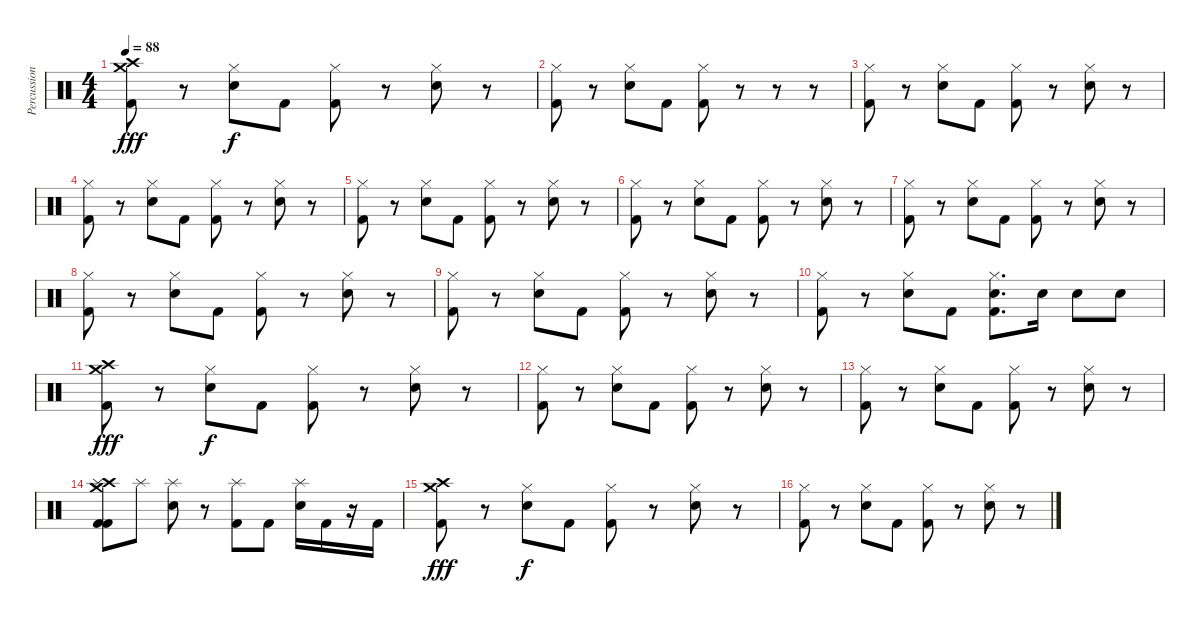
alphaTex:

\track ("Percussion" "Percussion") {instrument percussion}
\staff {score}
\articulation defaults
\ts (4 4)
\tempo 88
\clef neutral
\ks c
("Kick (hit) 2" "Crash medium (hit)" "Crash high (hit)").8{dy fff} r.8 ("Snare (hit) 2" "Hi-Hat (closed)").8{dy f} "Kick (hit) 2".8 ("Kick (hit) 2" "Hi-Hat (closed)").8 r.8 ("Snare (hit) 2" "Hi-Hat (closed)").8 r.8 |
("Kick (hit) 2" "Hi-Hat (closed)").8 r.8 ("Snare (hit) 2" "Hi-Hat (closed)").8 "Kick (hit) 2".8 ("Kick (hit) 2" "Hi-Hat (closed)").8 r.8 r.8 r.8 |
("Kick (hit) 2" "Hi-Hat (closed)").8 r.8 ("Snare (hit) 2" "Hi-Hat (closed)").8 "Kick (hit) 2".8 ("Kick (hit) 2" "Hi-Hat (closed)").8 r.8 ("Snare (hit) 2" "Hi-Hat (closed)").8 r.8 |
("Kick (hit) 2" "Hi-Hat (closed)").8 r.8 ("Snare (hit) 2" "Hi-Hat (closed)").8 "Kick (hit) 2".8 ("Kick (hit) 2" "Hi-Hat (closed)").8 r.8 ("Snare (hit) 2" "Hi-Hat (closed)").8 r.8 |
("Kick (hit) 2" "Hi-Hat (closed)").8 r.8 ("Snare (hit) 2" "Hi-Hat (closed)").8 "Kick (hit) 2".8 ("Kick (hit) 2" "Hi-Hat (closed)").8 r.8 ("Snare (hit) 2" "Hi-Hat (closed)").8 r.8 |
("Kick (hit) 2" "Hi-Hat (closed)").8 r.8 ("Snare (hit) 2" "Hi-Hat (closed)").8 "Kick (hit) 2".8 ("Kick (hit) 2" "Hi-Hat (closed)").8 r.8 ("Snare (hit) 2" "Hi-Hat (closed)").8 r.8 |
("Kick (hit) 2" "Hi-Hat (closed)").8 r.8 ("Snare (hit) 2" "Hi-Hat (closed)").8 "Kick (hit) 2".8 ("Kick (hit) 2" "Hi-Hat (closed)").8 r.8 ("Snare (hit) 2" "Hi-Hat (closed)").8 r.8 |
("Kick (hit) 2" "Hi-Hat (closed)").8 r.8 ("Snare (hit) 2" "Hi-Hat (closed)").8 "Kick (hit) 2".8 ("Kick (hit) 2" "Hi-Hat (closed)").8 r.8 ("Snare (hit) 2" "Hi-Hat (closed)").8 r.8 |
("Kick (hit) 2" "Hi-Hat (closed)").8 r.8 ("Snare (hit) 2" "Hi-Hat (closed)").8 "Kick (hit) 2".8 ("Kick (hit) 2" "Hi-Hat (closed)").8 r.8 ("Snare (hit) 2" "Hi-Hat (closed)").8 r.8 |
("Kick (hit) 2" "Hi-Hat (closed)").8 r.8 ("Snare (hit) 2" "Hi-Hat (closed)").8 "Kick (hit) 2".8 ("Kick (hit) 2" "Snare (hit) 2" "Hi-Hat (closed)").8{d} "Snare (hit) 2".16 "Snare (hit) 2".8 "Snare (hit) 2".8 |
("Kick (hit) 2" "Crash medium (hit)" "Crash high (hit)").8{dy fff} r.8 ("Snare (hit) 2" "Hi-Hat (closed)").8{dy f} "Kick (hit) 2".8 ("Kick (hit) 2" "Hi-Hat (closed)").8 r.8 ("Snare (hit) 2" "Hi-Hat (closed)").8 r.8 |
("Kick (hit) 2" "Hi-Hat (closed)").8 r.8 ("Snare (hit) 2" "Hi-Hat (closed)").8 "Kick (hit) 2".8 ("Kick (hit) 2" "Hi-Hat (closed)").8 r.8 ("Snare (hit) 2" "Hi-Hat (closed)").8 r.8 |
("Kick (hit) 2" "Hi-Hat (closed)").8 r.8 ("Snare (hit) 2" "Hi-Hat (closed)").8 "Kick (hit) 2".8 ("Kick (hit) 2" "Hi-Hat (closed)").8 r.8 ("Snare (hit) 2" "Hi-Hat (closed)").8 r.8 |
("Crash high (hit)" "Crash medium (hit)" "Splash (hit)" "Kick (hit) 2" "Kick (hit) 2").8 "Splash (hit)".8 ("Splash (hit)" "Electric Snare (hit)").8 r.8 ("Splash (hit)" "Kick (hit) 2").8 "Kick (hit) 2".8 ("Splash (hit)" "Electric Snare (hit)").16 "Kick (hit) 2".16 r.16 "Kick (hit) 2".16 |
("Kick (hit) 2" "Crash medium (hit)" "Crash high (hit)").8{dy fff} r.8 ("Snare (hit) 2" "Hi-Hat (closed)").8{dy f} "Kick (hit) 2".8 ("Kick (hit) 2" "Hi-Hat (closed)").8 r.8 ("Snare (hit) 2" "Hi-Hat (closed)").8 r.8 |
("Kick (hit) 2" "Hi-Hat (closed)").8 r.8 ("Snare (hit) 2" "Hi-Hat (closed)").8 "Kick (hit) 2".8 ("Kick (hit) 2" "Hi-Hat (closed)").8 r.8 ("Snare (hit) 2" "Hi-Hat (closed)").8 r.8
